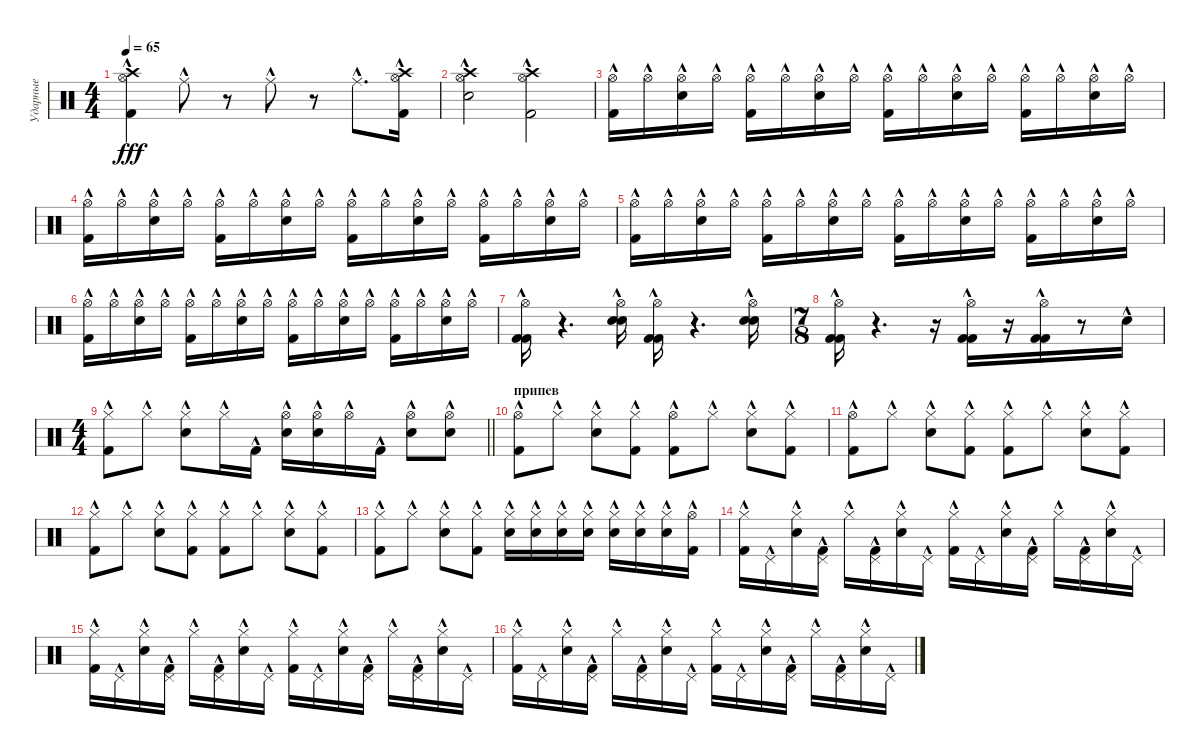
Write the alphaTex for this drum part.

\track ("Ударные" "Ударные") {instrument percussion}
\staff {score}
\articulation defaults
\ts (4 4)
\tempo 65
\clef neutral
\ks c
("Kick (hit) 2"{hac} "Hi-Hat (open)"{hac} "Crash high (hit)"{hac}).4{dy fff} "Ride (middle)"{hac}.8 r.8 "Ride (middle)"{hac}.8 r.8 "Ride (middle)"{hac}.8{d} ("Kick (hit) 2"{hac} "Crash high (hit)"{hac} "Hi-Hat (open)"{hac}).16 |
("Electric Snare (hit)"{hac} "Hi-Hat (open)"{hac} "Crash high (hit)"{hac}).2 ("Kick (hit) 2"{hac} "Hi-Hat (open)"{hac} "Crash high (hit)"{hac}).2 |
("Hi-Hat (open)"{hac} "Kick (hit) 2"{hac}).16 "Hi-Hat (open)"{hac}.16 ("Hi-Hat (open)"{hac} "Electric Snare (hit)"{hac}).16 "Hi-Hat (open)"{hac}.16 ("Hi-Hat (open)"{hac} "Kick (hit) 2"{hac}).16 "Hi-Hat (open)"{hac}.16 ("Hi-Hat (open)"{hac} "Electric Snare (hit)"{hac}).16 "Hi-Hat (open)"{hac}.16 ("Hi-Hat (open)"{hac} "Kick (hit) 2"{hac}).16 "Hi-Hat (open)"{hac}.16 ("Hi-Hat (open)"{hac} "Electric Snare (hit)"{hac}).16 "Hi-Hat (open)"{hac}.16 ("Hi-Hat (open)"{hac} "Kick (hit) 2"{hac}).16 "Hi-Hat (open)"{hac}.16 ("Hi-Hat (open)"{hac} "Electric Snare (hit)"{hac}).16 "Hi-Hat (open)"{hac}.16 |
("Hi-Hat (open)"{hac} "Kick (hit) 2"{hac}).16 "Hi-Hat (open)"{hac}.16 ("Hi-Hat (open)"{hac} "Electric Snare (hit)"{hac}).16 "Hi-Hat (open)"{hac}.16 ("Hi-Hat (open)"{hac} "Kick (hit) 2"{hac}).16 "Hi-Hat (open)"{hac}.16 ("Hi-Hat (open)"{hac} "Electric Snare (hit)"{hac}).16 "Hi-Hat (open)"{hac}.16 ("Hi-Hat (open)"{hac} "Kick (hit) 2"{hac}).16 "Hi-Hat (open)"{hac}.16 ("Hi-Hat (open)"{hac} "Electric Snare (hit)"{hac}).16 "Hi-Hat (open)"{hac}.16 ("Hi-Hat (open)"{hac} "Kick (hit) 2"{hac}).16 "Hi-Hat (open)"{hac}.16 ("Hi-Hat (open)"{hac} "Electric Snare (hit)"{hac}).16 "Hi-Hat (open)"{hac}.16 |
("Hi-Hat (open)"{hac} "Kick (hit) 2"{hac}).16 "Hi-Hat (open)"{hac}.16 ("Hi-Hat (open)"{hac} "Electric Snare (hit)"{hac}).16 "Hi-Hat (open)"{hac}.16 ("Hi-Hat (open)"{hac} "Kick (hit) 2"{hac}).16 "Hi-Hat (open)"{hac}.16 ("Hi-Hat (open)"{hac} "Electric Snare (hit)"{hac}).16 "Hi-Hat (open)"{hac}.16 ("Hi-Hat (open)"{hac} "Kick (hit) 2"{hac}).16 "Hi-Hat (open)"{hac}.16 ("Hi-Hat (open)"{hac} "Electric Snare (hit)"{hac}).16 "Hi-Hat (open)"{hac}.16 ("Hi-Hat (open)"{hac} "Kick (hit) 2"{hac}).16 "Hi-Hat (open)"{hac}.16 ("Hi-Hat (open)"{hac} "Electric Snare (hit)"{hac}).16 "Hi-Hat (open)"{hac}.16 |
("Hi-Hat (open)"{hac} "Kick (hit) 2"{hac}).16 "Hi-Hat (open)"{hac}.16 ("Hi-Hat (open)"{hac} "Electric Snare (hit)"{hac}).16 "Hi-Hat (open)"{hac}.16 ("Hi-Hat (open)"{hac} "Kick (hit) 2"{hac}).16 "Hi-Hat (open)"{hac}.16 ("Hi-Hat (open)"{hac} "Electric Snare (hit)"{hac}).16 "Hi-Hat (open)"{hac}.16 ("Hi-Hat (open)"{hac} "Kick (hit) 2"{hac}).16 "Hi-Hat (open)"{hac}.16 ("Hi-Hat (open)"{hac} "Electric Snare (hit)"{hac}).16 "Hi-Hat (open)"{hac}.16 ("Hi-Hat (open)"{hac} "Kick (hit) 2"{hac}).16 "Hi-Hat (open)"{hac}.16 ("Hi-Hat (open)"{hac} "Electric Snare (hit)"{hac}).16 "Hi-Hat (open)"{hac}.16 |
("Hi-Hat (open)"{hac} "Kick (hit) 2"{hac} "Kick (hit) 2"{hac}).16 r.4{d} ("Hi-Hat (open)"{hac} "Electric Snare (hit)"{hac} "Electric Snare (hit)"{hac}).16 ("Hi-Hat (open)"{hac} "Kick (hit) 2"{hac} "Kick (hit) 2"{hac}).16 r.4{d} ("Hi-Hat (open)"{hac} "Electric Snare (hit)"{hac} "Electric Snare (hit)"{hac}).16 |
\ts (7 8)
("Hi-Hat (open)"{hac} "Kick (hit) 2"{hac} "Kick (hit) 2"{hac}).16 r.4{d} r.16 ("Hi-Hat (open)"{hac} "Kick (hit) 2"{hac} "Kick (hit) 2"{hac}).16 r.16 ("Hi-Hat (open)"{hac} "Kick (hit) 2"{hac} "Kick (hit) 2"{hac}).16 r.8 "Electric Snare (hit)"{hac}.16 |
\ts (4 4)
\barLineRight lightlight
("Hi-Hat (closed)"{hac} "Kick (hit) 2"{hac}).8 "Hi-Hat (closed)"{hac}.8 ("Hi-Hat (closed)"{hac} "Electric Snare (hit)"{hac}).8 "Hi-Hat (closed)"{hac}.16 "Kick (hit) 2"{hac}.16 ("Hi-Hat (open)"{hac} "Electric Snare (hit)"{hac}).16 ("Hi-Hat (open)"{hac} "Electric Snare (hit)"{hac}).16 "Hi-Hat (open)"{hac}.16 "Kick (hit) 2"{hac}.16 ("Hi-Hat (open)"{hac} "Electric Snare (hit)"{hac}).8 ("Hi-Hat (open)"{hac} "Electric Snare (hit)"{hac}).8 |
\section ("" "припев")
("Hi-Hat (open)"{hac} "Kick (hit) 2"{hac}).8 "Hi-Hat (closed)"{hac}.8 ("Hi-Hat (closed)"{hac} "Electric Snare (hit)"{hac}).8 ("Hi-Hat (closed)"{hac} "Kick (hit) 2"{hac}).8 ("Hi-Hat (open)"{hac} "Kick (hit) 2"{hac}).8 "Hi-Hat (closed)"{hac}.8 ("Hi-Hat (closed)"{hac} "Electric Snare (hit)"{hac}).8 ("Hi-Hat (closed)"{hac} "Kick (hit) 2"{hac}).8 |
("Hi-Hat (open)"{hac} "Kick (hit) 2"{hac}).8 "Hi-Hat (closed)"{hac}.8 ("Hi-Hat (closed)"{hac} "Electric Snare (hit)"{hac}).8 ("Hi-Hat (closed)"{hac} "Kick (hit) 2"{hac}).8 ("Hi-Hat (closed)"{hac} "Kick (hit) 2"{hac}).8 "Hi-Hat (closed)"{hac}.8 ("Hi-Hat (closed)"{hac} "Electric Snare (hit)"{hac}).8 ("Hi-Hat (closed)"{hac} "Kick (hit) 2"{hac}).8 |
("Hi-Hat (closed)"{hac} "Kick (hit) 2"{hac}).8 "Hi-Hat (closed)"{hac}.8 ("Hi-Hat (closed)"{hac} "Electric Snare (hit)"{hac}).8 ("Hi-Hat (closed)"{hac} "Kick (hit) 2"{hac}).8 ("Hi-Hat (closed)"{hac} "Kick (hit) 2"{hac}).8 "Hi-Hat (closed)"{hac}.8 ("Hi-Hat (closed)"{hac} "Electric Snare (hit)"{hac}).8 ("Hi-Hat (closed)"{hac} "Kick (hit) 2"{hac}).8 |
("Hi-Hat (closed)"{hac} "Kick (hit) 2"{hac}).8 "Hi-Hat (closed)"{hac}.8 ("Hi-Hat (closed)"{hac} "Electric Snare (hit)"{hac}).8 ("Hi-Hat (closed)"{hac} "Kick (hit) 2"{hac}).8 ("Electric Snare (hit)"{hac} "Hi-Hat (closed)"{hac}).16 ("Electric Snare (hit)"{hac} "Hi-Hat (closed)"{hac}).16 ("Electric Snare (hit)"{hac} "Hi-Hat (closed)"{hac}).16 ("Electric Snare (hit)"{hac} "Hi-Hat (closed)"{hac}).16 ("Electric Snare (hit)"{hac} "Hi-Hat (closed)"{hac}).16 ("Electric Snare (hit)"{hac} "Hi-Hat (closed)"{hac}).16 ("Electric Snare (hit)"{hac} "Hi-Hat (closed)"{hac}).16 ("Hi-Hat (open)"{hac} "Kick (hit) 2"{hac}).16 |
("Hi-Hat (closed)"{hac} "Kick (hit) 2"{hac}).16 "Pedal Hi-Hat (hit)"{hac}.16 ("Hi-Hat (closed)"{hac} "Electric Snare (hit)"{hac}).16 ("Pedal Hi-Hat (hit)"{hac} "Kick (hit) 2"{hac}).16 "Hi-Hat (closed)"{hac}.16 ("Pedal Hi-Hat (hit)"{hac} "Kick (hit) 2"{hac}).16 ("Hi-Hat (closed)"{hac} "Electric Snare (hit)"{hac}).16 "Pedal Hi-Hat (hit)"{hac}.16 ("Hi-Hat (closed)"{hac} "Kick (hit) 2"{hac}).16 "Pedal Hi-Hat (hit)"{hac}.16 ("Hi-Hat (closed)"{hac} "Electric Snare (hit)"{hac}).16 ("Pedal Hi-Hat (hit)"{hac} "Kick (hit) 2"{hac}).16 "Hi-Hat (closed)"{hac}.16 ("Pedal Hi-Hat (hit)"{hac} "Kick (hit) 2"{hac}).16 ("Hi-Hat (closed)"{hac} "Electric Snare (hit)"{hac}).16 "Pedal Hi-Hat (hit)"{hac}.16 |
("Hi-Hat (closed)"{hac} "Kick (hit) 2"{hac}).16 "Pedal Hi-Hat (hit)"{hac}.16 ("Hi-Hat (closed)"{hac} "Electric Snare (hit)"{hac}).16 ("Pedal Hi-Hat (hit)"{hac} "Kick (hit) 2"{hac}).16 "Hi-Hat (closed)"{hac}.16 ("Pedal Hi-Hat (hit)"{hac} "Kick (hit) 2"{hac}).16 ("Hi-Hat (closed)"{hac} "Electric Snare (hit)"{hac}).16 "Pedal Hi-Hat (hit)"{hac}.16 ("Hi-Hat (closed)"{hac} "Kick (hit) 2"{hac}).16 "Pedal Hi-Hat (hit)"{hac}.16 ("Hi-Hat (closed)"{hac} "Electric Snare (hit)"{hac}).16 ("Pedal Hi-Hat (hit)"{hac} "Kick (hit) 2"{hac}).16 "Hi-Hat (closed)"{hac}.16 ("Pedal Hi-Hat (hit)"{hac} "Kick (hit) 2"{hac}).16 ("Hi-Hat (closed)"{hac} "Electric Snare (hit)"{hac}).16 "Pedal Hi-Hat (hit)"{hac}.16 |
("Hi-Hat (closed)"{hac} "Kick (hit) 2"{hac}).16 "Pedal Hi-Hat (hit)"{hac}.16 ("Hi-Hat (closed)"{hac} "Electric Snare (hit)"{hac}).16 ("Pedal Hi-Hat (hit)"{hac} "Kick (hit) 2"{hac}).16 "Hi-Hat (closed)"{hac}.16 ("Pedal Hi-Hat (hit)"{hac} "Kick (hit) 2"{hac}).16 ("Hi-Hat (closed)"{hac} "Electric Snare (hit)"{hac}).16 "Pedal Hi-Hat (hit)"{hac}.16 ("Hi-Hat (closed)"{hac} "Kick (hit) 2"{hac}).16 "Pedal Hi-Hat (hit)"{hac}.16 ("Hi-Hat (closed)"{hac} "Electric Snare (hit)"{hac}).16 ("Pedal Hi-Hat (hit)"{hac} "Kick (hit) 2"{hac}).16 "Hi-Hat (closed)"{hac}.16 ("Pedal Hi-Hat (hit)"{hac} "Kick (hit) 2"{hac}).16 ("Hi-Hat (closed)"{hac} "Electric Snare (hit)"{hac}).16 "Pedal Hi-Hat (hit)"{hac}.16
